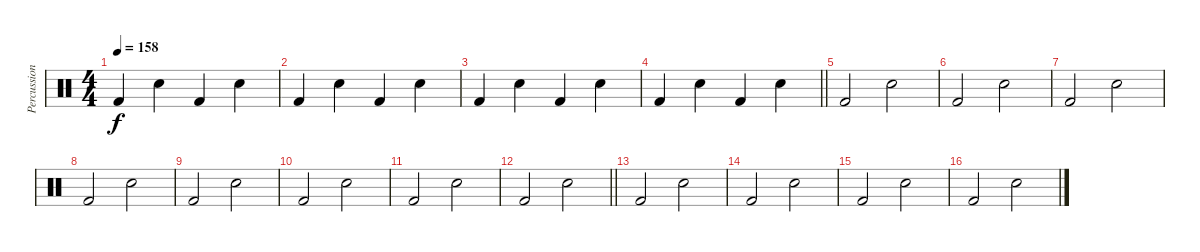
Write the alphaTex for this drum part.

\track ("Percussions" "Percussion") {instrument percussion}
\staff {score}
\articulation defaults
\ts (4 4)
\tempo 158
\clef neutral
\ks c "Kick (hit) 2".4{dy f volume 16} "Electric Snare (hit)".4 "Kick (hit) 2".4 "Electric Snare (hit)".4
|
"Kick (hit) 2".4 "Electric Snare (hit)".4 "Kick (hit) 2".4 "Electric Snare (hit)".4 |
"Kick (hit) 2".4{volume 16} "Electric Snare (hit)".4 "Kick (hit) 2".4 "Electric Snare (hit)".4 |
\barLineRight lightlight "Kick (hit) 2".4{volume 16} "Electric Snare (hit)".4 "Kick (hit) 2".4 "Electric Snare (hit)".4
|
"Kick (hit) 2".2{volume 16} "Electric Snare (hit)".2 |
"Kick (hit) 2".2 "Electric Snare (hit)".2 |
"Kick (hit) 2".2 "Electric Snare (hit)".2 |
"Kick (hit) 2".2 "Electric Snare (hit)".2 |
"Kick (hit) 2".2 "Electric Snare (hit)".2 |
"Kick (hit) 2".2 "Electric Snare (hit)".2 |
"Kick (hit) 2".2 "Electric Snare (hit)".2 |
\barLineRight lightlight "Kick (hit) 2".2 "Electric Snare (hit)".2
|
"Kick (hit) 2".2{volume 16} "Electric Snare (hit)".2 |
"Kick (hit) 2".2 "Electric Snare (hit)".2 |
"Kick (hit) 2".2 "Electric Snare (hit)".2 |
"Kick (hit) 2".2 "Electric Snare (hit)".2
